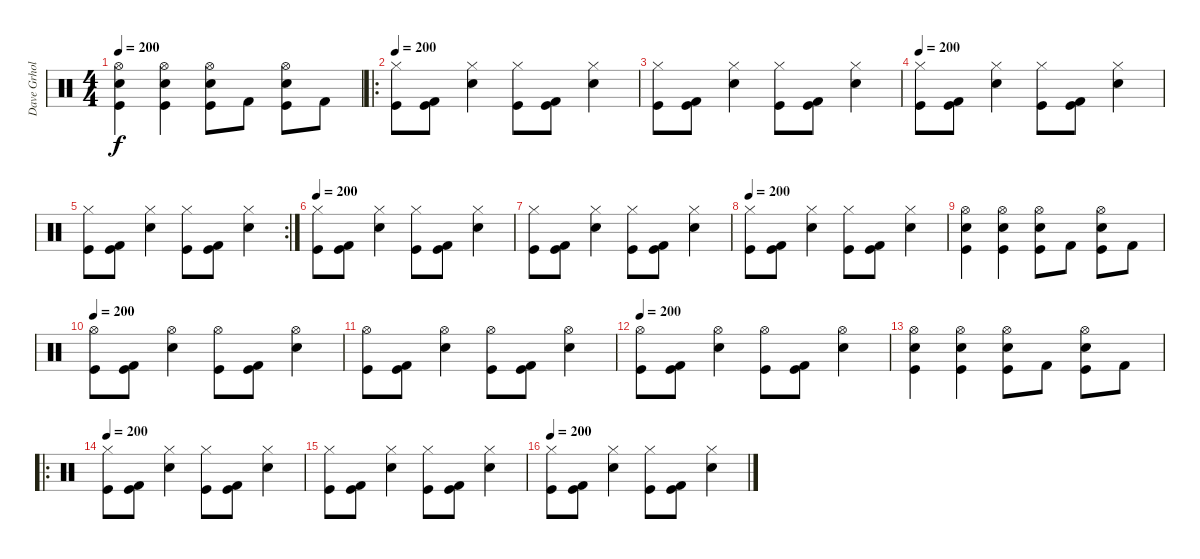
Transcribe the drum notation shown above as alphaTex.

\track ("Dave Grhol" "Dave Grhol") {instrument percussion}
\staff {score}
\articulation defaults
\ts (4 4)
\tempo 200
\clef neutral
\ks c
("Kick (hit)" "Snare (hit) 2" "Hi-Hat (open)").4{dy f} ("Kick (hit)" "Snare (hit) 2" "Hi-Hat (open)").4 ("Kick (hit)" "Snare (hit) 2" "Hi-Hat (open)").8 "Kick (hit) 2".8 ("Kick (hit)" "Snare (hit) 2" "Hi-Hat (open)").8 "Kick (hit) 2".8 |
\ro
\tempo 200
("Hi-Hat (closed)" "Kick (hit)").8 ("Kick (hit)" "Kick (hit) 2").8 ("Hi-Hat (closed)" "Snare (hit) 2").4 ("Hi-Hat (closed)" "Kick (hit)").8 ("Kick (hit)" "Kick (hit) 2").8 ("Hi-Hat (closed)" "Snare (hit) 2").4 |
("Hi-Hat (closed)" "Kick (hit)").8 ("Kick (hit)" "Kick (hit) 2").8 ("Hi-Hat (closed)" "Snare (hit) 2").4 ("Hi-Hat (closed)" "Kick (hit)").8 ("Kick (hit)" "Kick (hit) 2").8 ("Hi-Hat (closed)" "Snare (hit) 2").4 |
\tempo 200
("Hi-Hat (closed)" "Kick (hit)").8 ("Kick (hit)" "Kick (hit) 2").8 ("Hi-Hat (closed)" "Snare (hit) 2").4 ("Hi-Hat (closed)" "Kick (hit)").8 ("Kick (hit)" "Kick (hit) 2").8 ("Hi-Hat (closed)" "Snare (hit) 2").4 |
\rc 2
("Hi-Hat (closed)" "Kick (hit)").8 ("Kick (hit)" "Kick (hit) 2").8 ("Hi-Hat (closed)" "Snare (hit) 2").4 ("Hi-Hat (closed)" "Kick (hit)").8 ("Kick (hit)" "Kick (hit) 2").8 ("Hi-Hat (closed)" "Snare (hit) 2").4 |
\tempo 200
("Hi-Hat (closed)" "Kick (hit)").8 ("Kick (hit)" "Kick (hit) 2").8 ("Hi-Hat (closed)" "Snare (hit) 2").4 ("Hi-Hat (closed)" "Kick (hit)").8 ("Kick (hit)" "Kick (hit) 2").8 ("Hi-Hat (closed)" "Snare (hit) 2").4 |
("Hi-Hat (closed)" "Kick (hit)").8 ("Kick (hit)" "Kick (hit) 2").8 ("Hi-Hat (closed)" "Snare (hit) 2").4 ("Hi-Hat (closed)" "Kick (hit)").8 ("Kick (hit)" "Kick (hit) 2").8 ("Hi-Hat (closed)" "Snare (hit) 2").4 |
\tempo 200
("Hi-Hat (closed)" "Kick (hit)").8 ("Kick (hit)" "Kick (hit) 2").8 ("Hi-Hat (closed)" "Snare (hit) 2").4 ("Hi-Hat (closed)" "Kick (hit)").8 ("Kick (hit)" "Kick (hit) 2").8 ("Hi-Hat (closed)" "Snare (hit) 2").4 |
("Kick (hit)" "Snare (hit) 2" "Hi-Hat (open)").4 ("Kick (hit)" "Snare (hit) 2" "Hi-Hat (open)").4 ("Kick (hit)" "Snare (hit) 2" "Hi-Hat (open)").8 "Kick (hit) 2".8 ("Kick (hit)" "Snare (hit) 2" "Hi-Hat (open)").8 "Kick (hit) 2".8 |
\tempo 200
("Hi-Hat (open)" "Kick (hit)").8 ("Kick (hit)" "Kick (hit) 2").8 ("Hi-Hat (open)" "Snare (hit) 2").4 ("Hi-Hat (open)" "Kick (hit)").8 ("Kick (hit)" "Kick (hit) 2").8 ("Hi-Hat (open)" "Snare (hit) 2").4 |
("Hi-Hat (open)" "Kick (hit)").8 ("Kick (hit)" "Kick (hit) 2").8 ("Hi-Hat (open)" "Snare (hit) 2").4 ("Hi-Hat (open)" "Kick (hit)").8 ("Kick (hit)" "Kick (hit) 2").8 ("Hi-Hat (open)" "Snare (hit) 2").4 |
\tempo 200
("Hi-Hat (open)" "Kick (hit)").8 ("Kick (hit)" "Kick (hit) 2").8 ("Hi-Hat (open)" "Snare (hit) 2").4 ("Hi-Hat (open)" "Kick (hit)").8 ("Kick (hit)" "Kick (hit) 2").8 ("Hi-Hat (open)" "Snare (hit) 2").4 |
("Kick (hit)" "Snare (hit) 2" "Hi-Hat (open)").4 ("Kick (hit)" "Snare (hit) 2" "Hi-Hat (open)").4 ("Kick (hit)" "Snare (hit) 2" "Hi-Hat (open)").8 "Kick (hit) 2".8 ("Kick (hit)" "Snare (hit) 2" "Hi-Hat (open)").8 "Kick (hit) 2".8 |
\ro
\tempo 200
("Hi-Hat (closed)" "Kick (hit)").8 ("Kick (hit)" "Kick (hit) 2").8 ("Hi-Hat (closed)" "Snare (hit) 2").4 ("Hi-Hat (closed)" "Kick (hit)").8 ("Kick (hit)" "Kick (hit) 2").8 ("Hi-Hat (closed)" "Snare (hit) 2").4 |
("Hi-Hat (closed)" "Kick (hit)").8 ("Kick (hit)" "Kick (hit) 2").8 ("Hi-Hat (closed)" "Snare (hit) 2").4 ("Hi-Hat (closed)" "Kick (hit)").8 ("Kick (hit)" "Kick (hit) 2").8 ("Hi-Hat (closed)" "Snare (hit) 2").4 |
\tempo 200
("Hi-Hat (closed)" "Kick (hit)").8 ("Kick (hit)" "Kick (hit) 2").8 ("Hi-Hat (closed)" "Snare (hit) 2").4 ("Hi-Hat (closed)" "Kick (hit)").8 ("Kick (hit)" "Kick (hit) 2").8 ("Hi-Hat (closed)" "Snare (hit) 2").4
